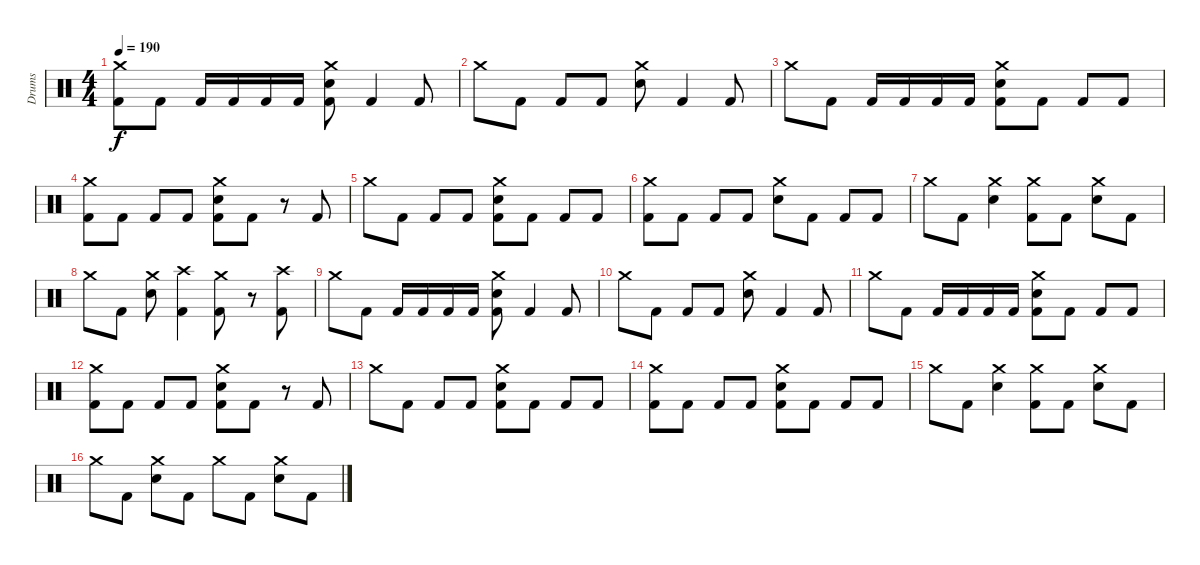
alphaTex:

\track ("Drums" "Drums") {instrument percussion}
\staff {score}
\articulation defaults
\ts (4 4)
\tempo 190
\clef neutral
\ks c
("Crash medium (hit)" "Kick (hit) 2").8{dy f} "Kick (hit) 2".8 "Kick (hit) 2".16 "Kick (hit) 2".16 "Kick (hit) 2".16 "Kick (hit) 2".16 ("Crash medium (hit)" "Snare (hit) 2" "Kick (hit) 2").8 "Kick (hit) 2".4 "Kick (hit) 2".8 |
"Crash medium (hit)".8 "Kick (hit) 2".8 "Kick (hit) 2".8 "Kick (hit) 2".8 ("Crash medium (hit)" "Snare (hit) 2").8 "Kick (hit) 2".4 "Kick (hit) 2".8 |
"Crash medium (hit)".8 "Kick (hit) 2".8 "Kick (hit) 2".16 "Kick (hit) 2".16 "Kick (hit) 2".16 "Kick (hit) 2".16 ("Crash medium (hit)" "Snare (hit) 2" "Kick (hit) 2").8 "Kick (hit) 2".8 "Kick (hit) 2".8 "Kick (hit) 2".8 |
("Crash medium (hit)" "Kick (hit) 2").8 "Kick (hit) 2".8 "Kick (hit) 2".8 "Kick (hit) 2".8 ("Crash medium (hit)" "Snare (hit) 2" "Kick (hit) 2").8 "Kick (hit) 2".8 r.8 "Kick (hit) 2".8 |
"Crash medium (hit)".8 "Kick (hit) 2".8 "Kick (hit) 2".8 "Kick (hit) 2".8 ("Crash medium (hit)" "Snare (hit) 2" "Kick (hit) 2").8 "Kick (hit) 2".8 "Kick (hit) 2".8 "Kick (hit) 2".8 |
("Crash medium (hit)" "Kick (hit) 2").8 "Kick (hit) 2".8 "Kick (hit) 2".8 "Kick (hit) 2".8 ("Crash medium (hit)" "Snare (hit) 2").8 "Kick (hit) 2".8 "Kick (hit) 2".8 "Kick (hit) 2".8 |
"Crash medium (hit)".8 "Kick (hit) 2".8 ("Crash medium (hit)" "Snare (hit) 2").4 ("Crash medium (hit)" "Kick (hit) 2").8 "Kick (hit) 2".8 ("Crash medium (hit)" "Snare (hit) 2").8 "Kick (hit) 2".8 |
"Crash medium (hit)".8 "Kick (hit) 2".8 ("Crash medium (hit)" "Snare (hit) 2").8 ("Crash high (hit)" "Kick (hit) 2").4 ("Crash medium (hit)" "Kick (hit) 2").8 r.8 ("Crash high (hit)" "Kick (hit) 2").8 |
"Crash medium (hit)".8 "Kick (hit) 2".8 "Kick (hit) 2".16 "Kick (hit) 2".16 "Kick (hit) 2".16 "Kick (hit) 2".16 ("Crash medium (hit)" "Snare (hit) 2" "Kick (hit) 2").8 "Kick (hit) 2".4 "Kick (hit) 2".8 |
"Crash medium (hit)".8 "Kick (hit) 2".8 "Kick (hit) 2".8 "Kick (hit) 2".8 ("Crash medium (hit)" "Snare (hit) 2").8 "Kick (hit) 2".4 "Kick (hit) 2".8 |
"Crash medium (hit)".8 "Kick (hit) 2".8 "Kick (hit) 2".16 "Kick (hit) 2".16 "Kick (hit) 2".16 "Kick (hit) 2".16 ("Crash medium (hit)" "Snare (hit) 2" "Kick (hit) 2").8 "Kick (hit) 2".8 "Kick (hit) 2".8 "Kick (hit) 2".8 |
("Crash medium (hit)" "Kick (hit) 2").8 "Kick (hit) 2".8 "Kick (hit) 2".8 "Kick (hit) 2".8 ("Crash medium (hit)" "Snare (hit) 2" "Kick (hit) 2").8 "Kick (hit) 2".8 r.8 "Kick (hit) 2".8 |
"Crash medium (hit)".8 "Kick (hit) 2".8 "Kick (hit) 2".8 "Kick (hit) 2".8 ("Crash medium (hit)" "Snare (hit) 2" "Kick (hit) 2").8 "Kick (hit) 2".8 "Kick (hit) 2".8 "Kick (hit) 2".8 |
("Crash medium (hit)" "Kick (hit) 2").8 "Kick (hit) 2".8 "Kick (hit) 2".8 "Kick (hit) 2".8 ("Crash medium (hit)" "Snare (hit) 2" "Kick (hit) 2").8 "Kick (hit) 2".8 "Kick (hit) 2".8 "Kick (hit) 2".8 |
"Crash medium (hit)".8 "Kick (hit) 2".8 ("Crash medium (hit)" "Snare (hit) 2").4 ("Crash medium (hit)" "Kick (hit) 2").8 "Kick (hit) 2".8 ("Crash medium (hit)" "Snare (hit) 2").8 "Kick (hit) 2".8 |
"Crash medium (hit)".8 "Kick (hit) 2".8 ("Crash medium (hit)" "Snare (hit) 2").8 "Kick (hit) 2".8 "Crash medium (hit)".8 "Kick (hit) 2".8 ("Crash medium (hit)" "Snare (hit) 2").8 "Kick (hit) 2".8
